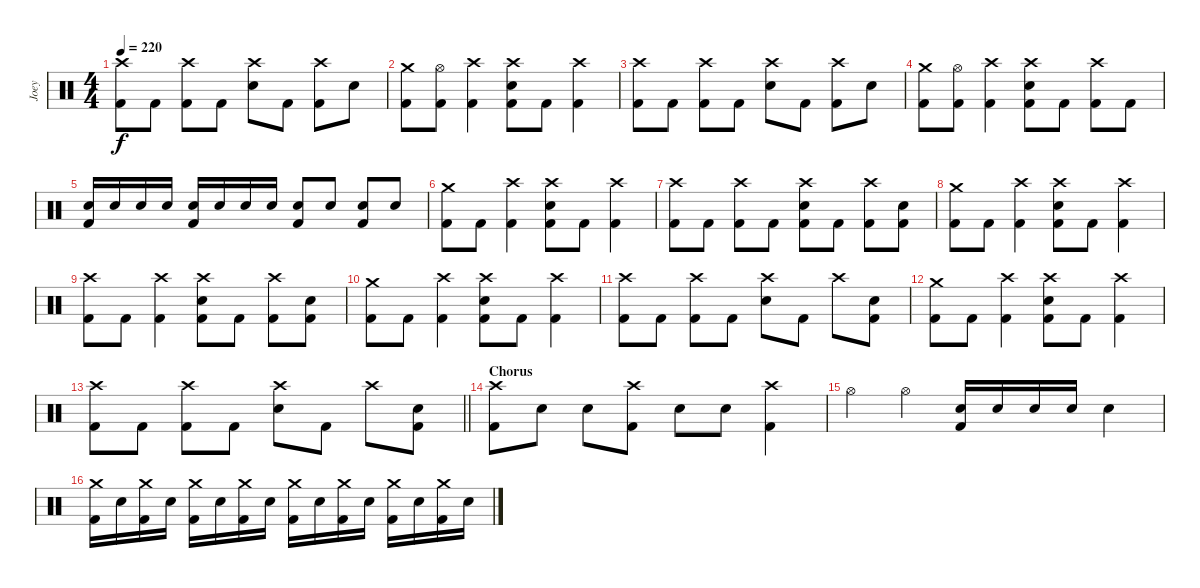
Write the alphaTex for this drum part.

\track ("Joey" "Joey") {instrument percussion}
\staff {score}
\articulation defaults
\ts (4 4)
\tempo 220
\clef neutral
\ks c
("Crash high (hit)" "Kick (hit) 2").8{dy f} "Kick (hit) 2".8 ("Crash high (hit)" "Kick (hit) 2").8 "Kick (hit) 2".8 ("Crash high (hit)" "Electric Snare (hit)").8 "Kick (hit) 2".8 ("Crash high (hit)" "Kick (hit) 2").8 "Electric Snare (hit)".8 |
("Crash medium (hit)" "Kick (hit) 2").8 ("Hi-Hat (open)" "Kick (hit) 2").8 ("Crash high (hit)" "Kick (hit) 2").4 ("Crash high (hit)" "Electric Snare (hit)" "Kick (hit) 2").8 "Kick (hit) 2".8 ("Crash high (hit)" "Kick (hit) 2").4 |
("Crash high (hit)" "Kick (hit) 2").8 "Kick (hit) 2".8 ("Crash high (hit)" "Kick (hit) 2").8 "Kick (hit) 2".8 ("Crash high (hit)" "Electric Snare (hit)").8 "Kick (hit) 2".8 ("Crash high (hit)" "Kick (hit) 2").8 "Electric Snare (hit)".8 |
("Crash medium (hit)" "Kick (hit) 2").8 ("Hi-Hat (open)" "Kick (hit) 2").8 ("Crash high (hit)" "Kick (hit) 2").4 ("Crash high (hit)" "Electric Snare (hit)" "Kick (hit) 2").8 "Kick (hit) 2".8 ("Crash high (hit)" "Kick (hit) 2").8 "Kick (hit) 2".8 |
("Electric Snare (hit)" "Kick (hit) 2").16 "Electric Snare (hit)".16 "Electric Snare (hit)".16 "Electric Snare (hit)".16 ("Electric Snare (hit)" "Kick (hit) 2").16 "Electric Snare (hit)".16 "Electric Snare (hit)".16 "Electric Snare (hit)".16 ("Electric Snare (hit)" "Kick (hit) 2").8 "Electric Snare (hit)".8 ("Electric Snare (hit)" "Kick (hit) 2").8 "Electric Snare (hit)".8 |
("Crash medium (hit)" "Kick (hit) 2").8 "Kick (hit) 2".8 ("Crash high (hit)" "Kick (hit) 2").4 ("Crash high (hit)" "Electric Snare (hit)" "Kick (hit) 2").8 "Kick (hit) 2".8 ("Crash high (hit)" "Kick (hit) 2").4 |
("Crash high (hit)" "Kick (hit) 2").8 "Kick (hit) 2".8 ("Crash high (hit)" "Kick (hit) 2").8 "Kick (hit) 2".8 ("Crash high (hit)" "Electric Snare (hit)" "Kick (hit) 2").8 "Kick (hit) 2".8 ("Crash high (hit)" "Kick (hit) 2").8 ("Electric Snare (hit)" "Kick (hit) 2").8 |
("Crash medium (hit)" "Kick (hit) 2").8 "Kick (hit) 2".8 ("Crash high (hit)" "Kick (hit) 2").4 ("Crash high (hit)" "Electric Snare (hit)" "Kick (hit) 2").8 "Kick (hit) 2".8 ("Crash high (hit)" "Kick (hit) 2").4 |
("Crash high (hit)" "Kick (hit) 2").8 "Kick (hit) 2".8 ("Crash high (hit)" "Kick (hit) 2").4 ("Crash high (hit)" "Electric Snare (hit)" "Kick (hit) 2").8 "Kick (hit) 2".8 ("Crash high (hit)" "Kick (hit) 2").8 ("Electric Snare (hit)" "Kick (hit) 2").8 |
("Crash medium (hit)" "Kick (hit) 2").8 "Kick (hit) 2".8 ("Crash high (hit)" "Kick (hit) 2").4 ("Crash high (hit)" "Electric Snare (hit)" "Kick (hit) 2").8 "Kick (hit) 2".8 ("Crash high (hit)" "Kick (hit) 2").4 |
("Crash high (hit)" "Kick (hit) 2").8 "Kick (hit) 2".8 ("Crash high (hit)" "Kick (hit) 2").8 "Kick (hit) 2".8 ("Crash high (hit)" "Electric Snare (hit)").8 "Kick (hit) 2".8 "Crash high (hit)".8 ("Electric Snare (hit)" "Kick (hit) 2").8 |
("Crash medium (hit)" "Kick (hit) 2").8 "Kick (hit) 2".8 ("Crash high (hit)" "Kick (hit) 2").4 ("Crash high (hit)" "Electric Snare (hit)" "Kick (hit) 2").8 "Kick (hit) 2".8 ("Crash high (hit)" "Kick (hit) 2").4 |
\barLineRight lightlight
("Crash high (hit)" "Kick (hit) 2").8 "Kick (hit) 2".8 ("Crash high (hit)" "Kick (hit) 2").8 "Kick (hit) 2".8 ("Crash high (hit)" "Electric Snare (hit)").8 "Kick (hit) 2".8 "Crash high (hit)".8 ("Electric Snare (hit)" "Kick (hit) 2").8 |
\section ("" "Chorus")
("Crash high (hit)" "Kick (hit) 2").8 "Electric Snare (hit)".8 "Electric Snare (hit)".8 ("Crash high (hit)" "Kick (hit) 2").8 "Electric Snare (hit)".8 "Electric Snare (hit)".8 ("Crash high (hit)" "Kick (hit) 2").4 |
"Hi-Hat (open)".4 "Hi-Hat (open)".4 ("Electric Snare (hit)" "Kick (hit) 2").16 "Electric Snare (hit)".16 "Electric Snare (hit)".16 "Electric Snare (hit)".16 "Electric Snare (hit)".4 |
("Crash medium (hit)" "Kick (hit) 2").16 "Electric Snare (hit)".16 ("Crash medium (hit)" "Kick (hit) 2").16 "Electric Snare (hit)".16 ("Crash medium (hit)" "Kick (hit) 2").16 "Electric Snare (hit)".16 ("Crash medium (hit)" "Kick (hit) 2").16 "Electric Snare (hit)".16 ("Crash medium (hit)" "Kick (hit) 2").16 "Electric Snare (hit)".16 ("Crash medium (hit)" "Kick (hit) 2").16 "Electric Snare (hit)".16 ("Crash medium (hit)" "Kick (hit) 2").16 "Electric Snare (hit)".16 ("Crash medium (hit)" "Kick (hit) 2").16 "Electric Snare (hit)".16
